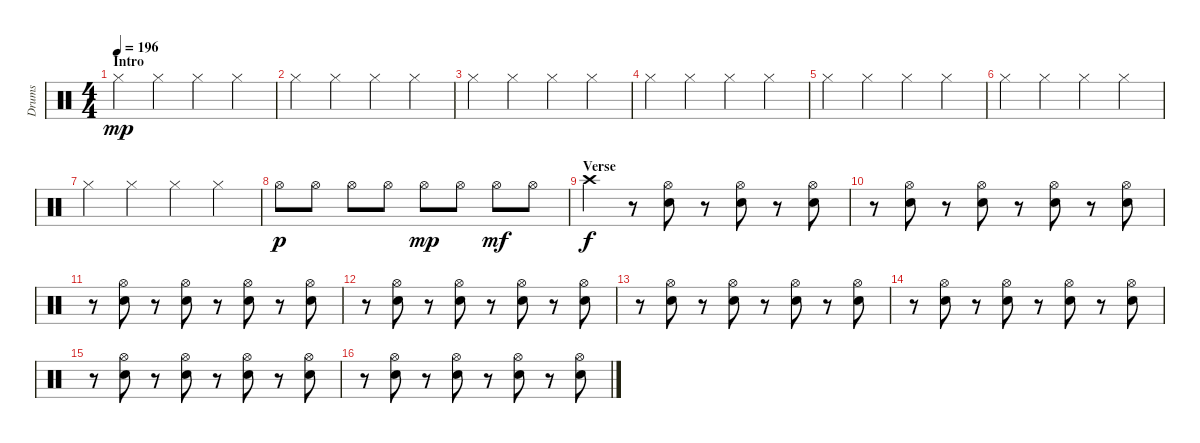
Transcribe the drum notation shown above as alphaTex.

\track ("Drums" "Drums") {instrument percussion}
\staff {score}
\articulation defaults
\ts (4 4)
\section ("" "Intro")
\tempo 196
\clef neutral
\ks c "Hi-Hat (closed)".4{dy mp} "Hi-Hat (closed)".4 "Hi-Hat (closed)".4 "Hi-Hat (closed)".4
|
"Hi-Hat (closed)".4 "Hi-Hat (closed)".4 "Hi-Hat (closed)".4 "Hi-Hat (closed)".4 |
"Hi-Hat (closed)".4 "Hi-Hat (closed)".4 "Hi-Hat (closed)".4 "Hi-Hat (closed)".4 |
"Hi-Hat (closed)".4 "Hi-Hat (closed)".4 "Hi-Hat (closed)".4 "Hi-Hat (closed)".4 |
"Hi-Hat (closed)".4 "Hi-Hat (closed)".4 "Hi-Hat (closed)".4 "Hi-Hat (closed)".4 |
"Hi-Hat (closed)".4 "Hi-Hat (closed)".4 "Hi-Hat (closed)".4 "Hi-Hat (closed)".4 |
"Hi-Hat (closed)".4 "Hi-Hat (closed)".4 "Hi-Hat (closed)".4 "Hi-Hat (closed)".4 |
"Hi-Hat (open)".8{dy p} "Hi-Hat (open)".8 "Hi-Hat (open)".8 "Hi-Hat (open)".8 "Hi-Hat (open)".8{dy mp} "Hi-Hat (open)".8 "Hi-Hat (open)".8{dy mf} "Hi-Hat (open)".8 |
\section ("" "Verse")
"Crash high (hit)".4{dy f} r.8 ("Hi-Hat (open)" "Electric Snare (hit)").8 r.8 ("Hi-Hat (open)" "Electric Snare (hit)").8 r.8 ("Hi-Hat (open)" "Electric Snare (hit)").8 |
r.8 ("Hi-Hat (open)" "Electric Snare (hit)").8 r.8 ("Hi-Hat (open)" "Electric Snare (hit)").8 r.8 ("Hi-Hat (open)" "Electric Snare (hit)").8 r.8 ("Hi-Hat (open)" "Electric Snare (hit)").8 |
r.8 ("Hi-Hat (open)" "Electric Snare (hit)").8 r.8 ("Hi-Hat (open)" "Electric Snare (hit)").8 r.8 ("Hi-Hat (open)" "Electric Snare (hit)").8 r.8 ("Hi-Hat (open)" "Electric Snare (hit)").8 |
r.8 ("Hi-Hat (open)" "Electric Snare (hit)").8 r.8 ("Hi-Hat (open)" "Electric Snare (hit)").8 r.8 ("Hi-Hat (open)" "Electric Snare (hit)").8 r.8 ("Hi-Hat (open)" "Electric Snare (hit)").8 |
r.8 ("Hi-Hat (open)" "Electric Snare (hit)").8 r.8 ("Hi-Hat (open)" "Electric Snare (hit)").8 r.8 ("Hi-Hat (open)" "Electric Snare (hit)").8 r.8 ("Hi-Hat (open)" "Electric Snare (hit)").8 |
r.8 ("Hi-Hat (open)" "Electric Snare (hit)").8 r.8 ("Hi-Hat (open)" "Electric Snare (hit)").8 r.8 ("Hi-Hat (open)" "Electric Snare (hit)").8 r.8 ("Hi-Hat (open)" "Electric Snare (hit)").8 |
r.8 ("Hi-Hat (open)" "Electric Snare (hit)").8 r.8 ("Hi-Hat (open)" "Electric Snare (hit)").8 r.8 ("Hi-Hat (open)" "Electric Snare (hit)").8 r.8 ("Hi-Hat (open)" "Electric Snare (hit)").8 |
r.8 ("Hi-Hat (open)" "Electric Snare (hit)").8 r.8 ("Hi-Hat (open)" "Electric Snare (hit)").8 r.8 ("Hi-Hat (open)" "Electric Snare (hit)").8 r.8 ("Hi-Hat (open)" "Electric Snare (hit)").8
